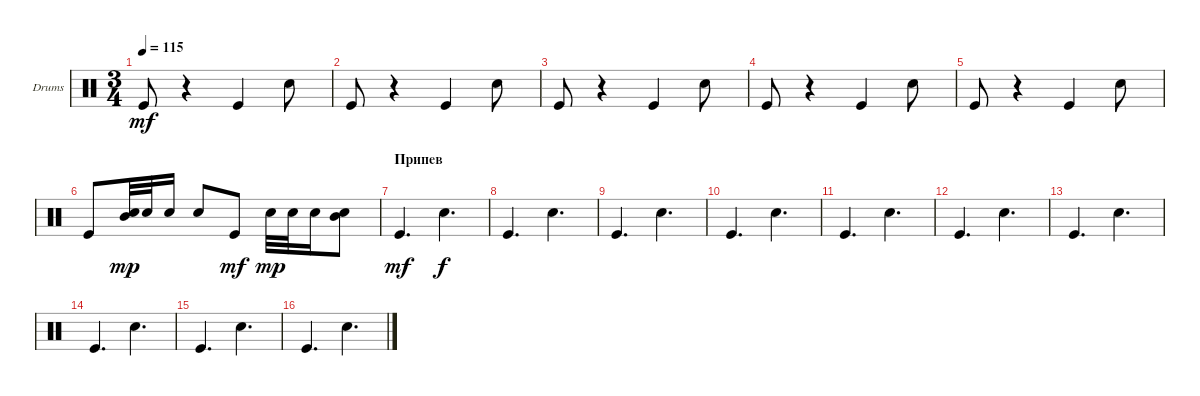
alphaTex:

\defaultSystemsLayout 4
\bracketExtendMode groupsimilarinstruments
\firstSystemTrackNameOrientation horizontal
\otherSystemsTrackNameOrientation horizontal
\track ("Е. Кулаков" "Drums") {instrument percussion}
\staff {score}
\articulation defaults
\ts (3 4)
\tempo 115
\clef neutral
\ks c "Kick (hit)".8{dy mf}
r.4 "Kick (hit)".4 "Snare (hit) 2".8 |
"Kick (hit)".8 r.4 "Kick (hit)".4 "Snare (hit) 2".8 |
"Kick (hit)".8 r.4 "Kick (hit)".4 "Snare (hit) 2".8 |
"Kick (hit)".8 r.4 "Kick (hit)".4 "Snare (hit) 2".8 |
"Kick (hit)".8 r.4 "Kick (hit)".4 "Snare (hit) 2".8 |
"Kick (hit)".8 ("Snare (hit) 2" "Mid Tom (hit)").32{dy mp} "Snare (hit) 2".32 "Snare (hit) 2".16 "Snare (hit) 2".8 "Kick (hit)".8{dy mf} "Snare (hit) 2".32{dy mp} "Snare (hit) 2".32 "Snare (hit) 2".16 ("Snare (hit) 2" "Mid Tom (hit)").8 |
\section ("" "Припев")
"Kick (hit)".4{d dy mf} "Snare (hit) 2".4{d dy f} |
"Kick (hit)".4{d} "Snare (hit) 2".4{d} |
"Kick (hit)".4{d} "Snare (hit) 2".4{d} |
"Kick (hit)".4{d} "Snare (hit) 2".4{d} |
"Kick (hit)".4{d} "Snare (hit) 2".4{d} |
"Kick (hit)".4{d} "Snare (hit) 2".4{d} |
"Kick (hit)".4{d} "Snare (hit) 2".4{d} |
"Kick (hit)".4{d} "Snare (hit) 2".4{d} |
"Kick (hit)".4{d} "Snare (hit) 2".4{d} |
"Kick (hit)".4{d} "Snare (hit) 2".4{d}
